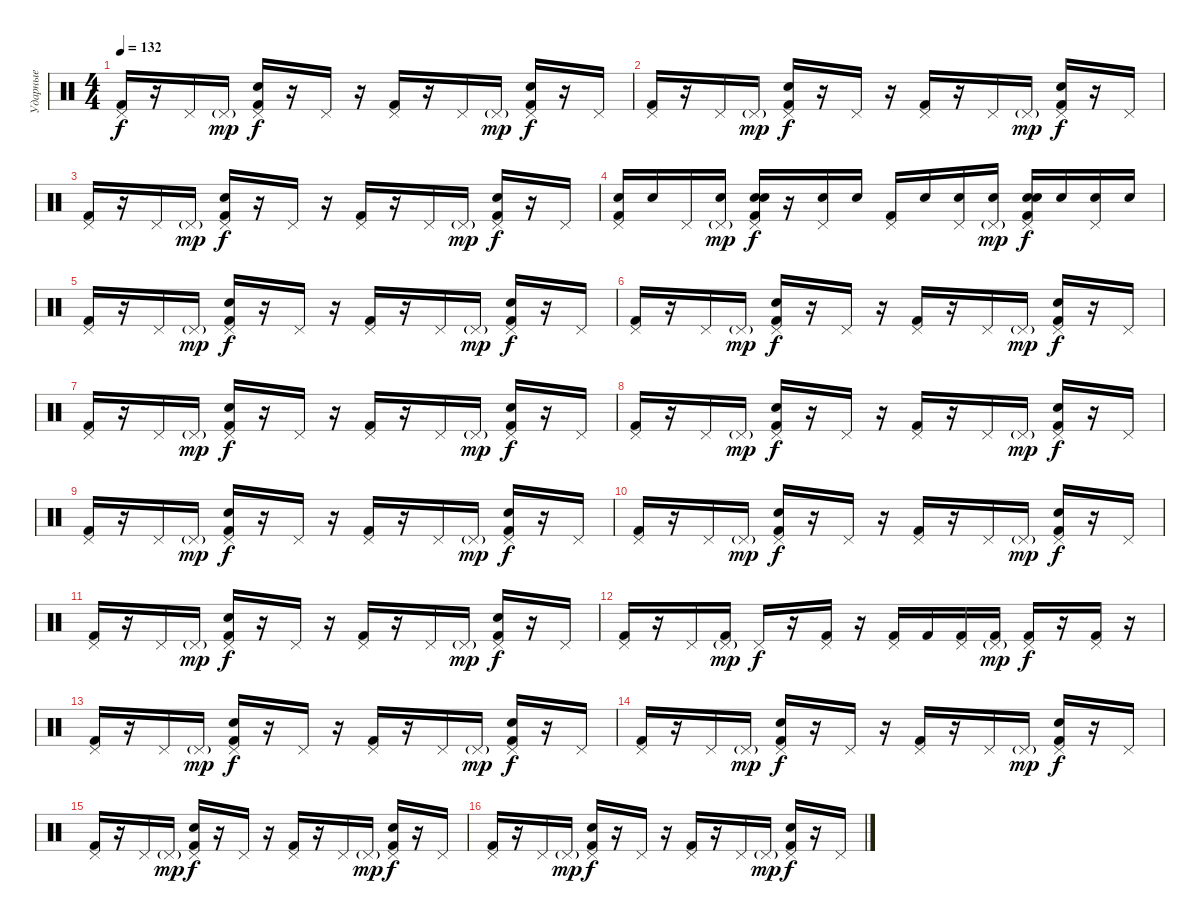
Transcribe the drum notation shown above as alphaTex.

\track ("Ударные" "Ударные") {instrument percussion}
\staff {score}
\articulation defaults
\ts (4 4)
\tempo 132
\clef neutral
\ks c
("Pedal Hi-Hat (hit)" "Kick (hit) 2").16{dy f} r.16 "Pedal Hi-Hat (hit)".16 "Pedal Hi-Hat (hit)"{g}.16{dy mp} ("Pedal Hi-Hat (hit)" "Snare (hit) 2" "Kick (hit) 2").16{dy f} r.16 "Pedal Hi-Hat (hit)".16 r.16 ("Pedal Hi-Hat (hit)" "Kick (hit) 2").16 r.16 "Pedal Hi-Hat (hit)".16 "Pedal Hi-Hat (hit)"{g}.16{dy mp} ("Pedal Hi-Hat (hit)" "Snare (hit) 2" "Kick (hit) 2").16{dy f} r.16 "Pedal Hi-Hat (hit)".16 |
("Pedal Hi-Hat (hit)" "Kick (hit) 2").16 r.16 "Pedal Hi-Hat (hit)".16 "Pedal Hi-Hat (hit)"{g}.16{dy mp} ("Pedal Hi-Hat (hit)" "Snare (hit) 2" "Kick (hit) 2").16{dy f} r.16 "Pedal Hi-Hat (hit)".16 r.16 ("Pedal Hi-Hat (hit)" "Kick (hit) 2").16 r.16 "Pedal Hi-Hat (hit)".16 "Pedal Hi-Hat (hit)"{g}.16{dy mp} ("Pedal Hi-Hat (hit)" "Snare (hit) 2" "Kick (hit) 2").16{dy f} r.16 "Pedal Hi-Hat (hit)".16 |
("Pedal Hi-Hat (hit)" "Kick (hit) 2").16 r.16 "Pedal Hi-Hat (hit)".16 "Pedal Hi-Hat (hit)"{g}.16{dy mp} ("Pedal Hi-Hat (hit)" "Snare (hit) 2" "Kick (hit) 2").16{dy f} r.16 "Pedal Hi-Hat (hit)".16 r.16 ("Pedal Hi-Hat (hit)" "Kick (hit) 2").16 r.16 "Pedal Hi-Hat (hit)".16 "Pedal Hi-Hat (hit)"{g}.16{dy mp} ("Pedal Hi-Hat (hit)" "Snare (hit) 2" "Kick (hit) 2").16{dy f} r.16 "Pedal Hi-Hat (hit)".16 |
("Pedal Hi-Hat (hit)" "Electric Snare (hit)" "Kick (hit) 2").16 "Electric Snare (hit)".16 "Pedal Hi-Hat (hit)".16 ("Pedal Hi-Hat (hit)"{g} "Electric Snare (hit)").16{dy mp} ("Pedal Hi-Hat (hit)" "Electric Snare (hit)" "Snare (hit) 2" "Kick (hit) 2").16{dy f} r.16 ("Pedal Hi-Hat (hit)" "Electric Snare (hit)").16 "Electric Snare (hit)".16 ("Pedal Hi-Hat (hit)" "Kick (hit) 2").16 "Electric Snare (hit)".16 ("Pedal Hi-Hat (hit)" "Electric Snare (hit)").16 ("Pedal Hi-Hat (hit)"{g} "Electric Snare (hit)").16{dy mp} ("Pedal Hi-Hat (hit)" "Electric Snare (hit)" "Snare (hit) 2" "Kick (hit) 2").16{dy f} "Electric Snare (hit)".16 ("Pedal Hi-Hat (hit)" "Electric Snare (hit)").16 "Electric Snare (hit)".16 |
("Pedal Hi-Hat (hit)" "Kick (hit) 2").16 r.16 "Pedal Hi-Hat (hit)".16 "Pedal Hi-Hat (hit)"{g}.16{dy mp} ("Pedal Hi-Hat (hit)" "Snare (hit) 2" "Kick (hit) 2").16{dy f} r.16 "Pedal Hi-Hat (hit)".16 r.16 ("Pedal Hi-Hat (hit)" "Kick (hit) 2").16 r.16 "Pedal Hi-Hat (hit)".16 "Pedal Hi-Hat (hit)"{g}.16{dy mp} ("Pedal Hi-Hat (hit)" "Snare (hit) 2" "Kick (hit) 2").16{dy f} r.16 "Pedal Hi-Hat (hit)".16 |
("Pedal Hi-Hat (hit)" "Kick (hit) 2").16 r.16 "Pedal Hi-Hat (hit)".16 "Pedal Hi-Hat (hit)"{g}.16{dy mp} ("Pedal Hi-Hat (hit)" "Snare (hit) 2" "Kick (hit) 2").16{dy f} r.16 "Pedal Hi-Hat (hit)".16 r.16 ("Pedal Hi-Hat (hit)" "Kick (hit) 2").16 r.16 "Pedal Hi-Hat (hit)".16 "Pedal Hi-Hat (hit)"{g}.16{dy mp} ("Pedal Hi-Hat (hit)" "Snare (hit) 2" "Kick (hit) 2").16{dy f} r.16 "Pedal Hi-Hat (hit)".16 |
("Pedal Hi-Hat (hit)" "Kick (hit) 2").16 r.16 "Pedal Hi-Hat (hit)".16 "Pedal Hi-Hat (hit)"{g}.16{dy mp} ("Pedal Hi-Hat (hit)" "Snare (hit) 2" "Kick (hit) 2").16{dy f} r.16 "Pedal Hi-Hat (hit)".16 r.16 ("Pedal Hi-Hat (hit)" "Kick (hit) 2").16 r.16 "Pedal Hi-Hat (hit)".16 "Pedal Hi-Hat (hit)"{g}.16{dy mp} ("Pedal Hi-Hat (hit)" "Snare (hit) 2" "Kick (hit) 2").16{dy f} r.16 "Pedal Hi-Hat (hit)".16 |
("Pedal Hi-Hat (hit)" "Kick (hit) 2").16 r.16 "Pedal Hi-Hat (hit)".16 "Pedal Hi-Hat (hit)"{g}.16{dy mp} ("Pedal Hi-Hat (hit)" "Snare (hit) 2" "Kick (hit) 2").16{dy f} r.16 "Pedal Hi-Hat (hit)".16 r.16 ("Pedal Hi-Hat (hit)" "Kick (hit) 2").16 r.16 "Pedal Hi-Hat (hit)".16 "Pedal Hi-Hat (hit)"{g}.16{dy mp} ("Pedal Hi-Hat (hit)" "Snare (hit) 2" "Kick (hit) 2").16{dy f} r.16 "Pedal Hi-Hat (hit)".16 |
("Pedal Hi-Hat (hit)" "Kick (hit) 2").16 r.16 "Pedal Hi-Hat (hit)".16 "Pedal Hi-Hat (hit)"{g}.16{dy mp} ("Pedal Hi-Hat (hit)" "Snare (hit) 2" "Kick (hit) 2").16{dy f} r.16 "Pedal Hi-Hat (hit)".16 r.16 ("Pedal Hi-Hat (hit)" "Kick (hit) 2").16 r.16 "Pedal Hi-Hat (hit)".16 "Pedal Hi-Hat (hit)"{g}.16{dy mp} ("Pedal Hi-Hat (hit)" "Snare (hit) 2" "Kick (hit) 2").16{dy f} r.16 "Pedal Hi-Hat (hit)".16 |
("Pedal Hi-Hat (hit)" "Kick (hit) 2").16 r.16 "Pedal Hi-Hat (hit)".16 "Pedal Hi-Hat (hit)"{g}.16{dy mp} ("Pedal Hi-Hat (hit)" "Snare (hit) 2" "Kick (hit) 2").16{dy f} r.16 "Pedal Hi-Hat (hit)".16 r.16 ("Pedal Hi-Hat (hit)" "Kick (hit) 2").16 r.16 "Pedal Hi-Hat (hit)".16 "Pedal Hi-Hat (hit)"{g}.16{dy mp} ("Pedal Hi-Hat (hit)" "Snare (hit) 2" "Kick (hit) 2").16{dy f} r.16 "Pedal Hi-Hat (hit)".16 |
("Pedal Hi-Hat (hit)" "Kick (hit) 2").16 r.16 "Pedal Hi-Hat (hit)".16 "Pedal Hi-Hat (hit)"{g}.16{dy mp} ("Pedal Hi-Hat (hit)" "Snare (hit) 2" "Kick (hit) 2").16{dy f} r.16 "Pedal Hi-Hat (hit)".16 r.16 ("Pedal Hi-Hat (hit)" "Kick (hit) 2").16 r.16 "Pedal Hi-Hat (hit)".16 "Pedal Hi-Hat (hit)"{g}.16{dy mp} ("Pedal Hi-Hat (hit)" "Snare (hit) 2" "Kick (hit) 2").16{dy f} r.16 "Pedal Hi-Hat (hit)".16 |
("Pedal Hi-Hat (hit)" "Kick (hit) 2").16 r.16 "Pedal Hi-Hat (hit)".16 ("Pedal Hi-Hat (hit)"{g} "Kick (hit) 2").16{dy mp} "Pedal Hi-Hat (hit)".16{dy f} r.16 ("Pedal Hi-Hat (hit)" "Kick (hit) 2").16 r.16 ("Pedal Hi-Hat (hit)" "Kick (hit) 2").16 "Kick (hit) 2".16 ("Pedal Hi-Hat (hit)" "Kick (hit) 2").16 ("Pedal Hi-Hat (hit)"{g} "Kick (hit) 2").16{dy mp} ("Pedal Hi-Hat (hit)" "Kick (hit) 2").16{dy f} r.16 ("Pedal Hi-Hat (hit)" "Kick (hit) 2").16 r.16 |
("Pedal Hi-Hat (hit)" "Kick (hit) 2").16 r.16 "Pedal Hi-Hat (hit)".16 "Pedal Hi-Hat (hit)"{g}.16{dy mp} ("Pedal Hi-Hat (hit)" "Snare (hit) 2" "Kick (hit) 2").16{dy f} r.16 "Pedal Hi-Hat (hit)".16 r.16 ("Pedal Hi-Hat (hit)" "Kick (hit) 2").16 r.16 "Pedal Hi-Hat (hit)".16 "Pedal Hi-Hat (hit)"{g}.16{dy mp} ("Pedal Hi-Hat (hit)" "Snare (hit) 2" "Kick (hit) 2").16{dy f} r.16 "Pedal Hi-Hat (hit)".16 |
("Pedal Hi-Hat (hit)" "Kick (hit) 2").16 r.16 "Pedal Hi-Hat (hit)".16 "Pedal Hi-Hat (hit)"{g}.16{dy mp} ("Pedal Hi-Hat (hit)" "Snare (hit) 2" "Kick (hit) 2").16{dy f} r.16 "Pedal Hi-Hat (hit)".16 r.16 ("Pedal Hi-Hat (hit)" "Kick (hit) 2").16 r.16 "Pedal Hi-Hat (hit)".16 "Pedal Hi-Hat (hit)"{g}.16{dy mp} ("Pedal Hi-Hat (hit)" "Snare (hit) 2" "Kick (hit) 2").16{dy f} r.16 "Pedal Hi-Hat (hit)".16 |
("Pedal Hi-Hat (hit)" "Kick (hit) 2").16 r.16 "Pedal Hi-Hat (hit)".16 "Pedal Hi-Hat (hit)"{g}.16{dy mp} ("Pedal Hi-Hat (hit)" "Snare (hit) 2" "Kick (hit) 2").16{dy f} r.16 "Pedal Hi-Hat (hit)".16 r.16 ("Pedal Hi-Hat (hit)" "Kick (hit) 2").16 r.16 "Pedal Hi-Hat (hit)".16 "Pedal Hi-Hat (hit)"{g}.16{dy mp} ("Pedal Hi-Hat (hit)" "Snare (hit) 2" "Kick (hit) 2").16{dy f} r.16 "Pedal Hi-Hat (hit)".16 |
("Pedal Hi-Hat (hit)" "Kick (hit) 2").16 r.16 "Pedal Hi-Hat (hit)".16 "Pedal Hi-Hat (hit)"{g}.16{dy mp} ("Pedal Hi-Hat (hit)" "Snare (hit) 2" "Kick (hit) 2").16{dy f} r.16 "Pedal Hi-Hat (hit)".16 r.16 ("Pedal Hi-Hat (hit)" "Kick (hit) 2").16 r.16 "Pedal Hi-Hat (hit)".16 "Pedal Hi-Hat (hit)"{g}.16{dy mp} ("Pedal Hi-Hat (hit)" "Snare (hit) 2" "Kick (hit) 2").16{dy f} r.16 "Pedal Hi-Hat (hit)".16
